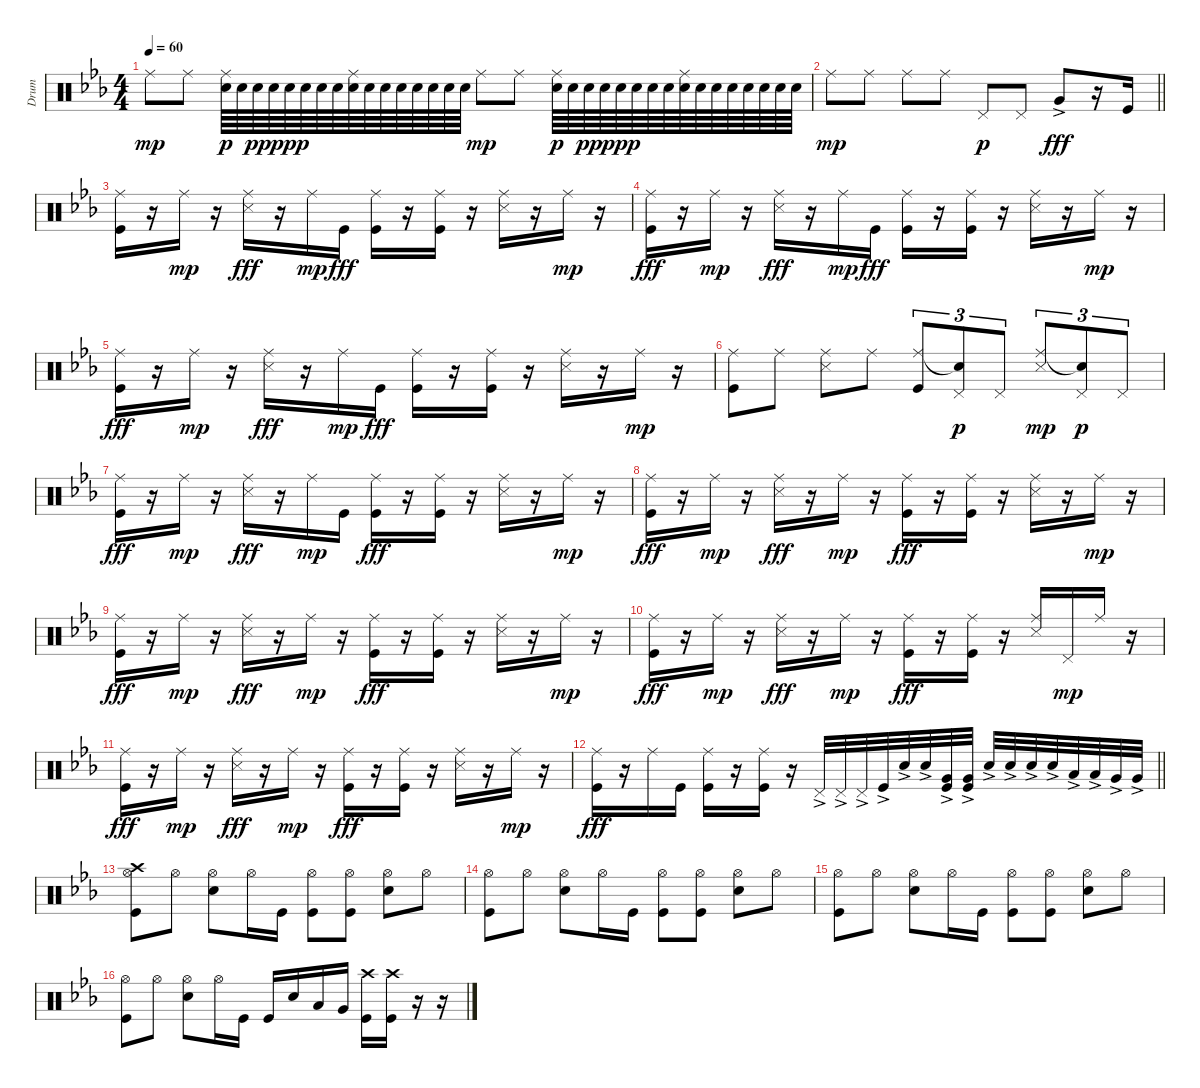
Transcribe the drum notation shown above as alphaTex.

\track ("Drum" "Drum") {instrument percussion}
\staff {score}
\articulation defaults
\ts (4 4)
\tempo 60
\clef neutral
\ks eb "Ride (middle)".8{dy mp} "Ride (middle)".8
("Ride (middle)" "Snare (hit) 2").64{dy p} "Snare (hit) 2".64 "Snare (hit) 2".64{dy pp} "Snare (hit) 2".64 "Snare (hit) 2".64{dy ppp} "Snare (hit) 2".64 "Snare (hit) 2".64 "Snare (hit) 2".64 ("Ride (middle)" "Snare (hit) 2").64 "Snare (hit) 2".64 "Snare (hit) 2".64 "Snare (hit) 2".64 "Snare (hit) 2".64 "Snare (hit) 2".64 "Snare (hit) 2".64 "Snare (hit) 2".64 "Ride (middle)".8{dy mp} "Ride (middle)".8 ("Ride (middle)" "Snare (hit) 2").64{dy p} "Snare (hit) 2".64 "Snare (hit) 2".64{dy pp} "Snare (hit) 2".64 "Snare (hit) 2".64{dy ppp} "Snare (hit) 2".64 "Snare (hit) 2".64 "Snare (hit) 2".64 ("Ride (middle)" "Snare (hit) 2").64 "Snare (hit) 2".64 "Snare (hit) 2".64 "Snare (hit) 2".64 "Snare (hit) 2".64 "Snare (hit) 2".64 "Snare (hit) 2".64 "Snare (hit) 2".64 |
\barLineRight lightlight "Ride (middle)".8{dy mp} "Ride (middle)".8 "Ride (middle)".8 "Ride (middle)".8 "Pedal Hi-Hat (hit)".8{dy p} "Pedal Hi-Hat (hit)".8 "Very Low Tom (hit)"{ac}.8{dy fff}
r.16 "Kick (hit)".16 |
("Ride (middle)" "Kick (hit)").16 r.16 "Ride (middle)".16{dy mp} r.16 ("Ride (middle)" "Snare (side stick) 3").16{dy fff} r.16 "Ride (middle)".16{dy mp} "Kick (hit)".16{dy fff} ("Ride (middle)" "Kick (hit)").16 r.16 ("Ride (middle)" "Kick (hit)").16 r.16 ("Ride (middle)" "Snare (side stick) 3").16 r.16 "Ride (middle)".16{dy mp} r.16 |
("Ride (middle)" "Kick (hit)").16{dy fff} r.16 "Ride (middle)".16{dy mp} r.16 ("Ride (middle)" "Snare (side stick) 3").16{dy fff} r.16 "Ride (middle)".16{dy mp} "Kick (hit)".16{dy fff} ("Ride (middle)" "Kick (hit)").16 r.16 ("Ride (middle)" "Kick (hit)").16 r.16 ("Ride (middle)" "Snare (side stick) 3").16 r.16 "Ride (middle)".16{dy mp} r.16 |
("Ride (middle)" "Kick (hit)").16{dy fff} r.16 "Ride (middle)".16{dy mp} r.16 ("Ride (middle)" "Snare (side stick) 3").16{dy fff} r.16 "Ride (middle)".16{dy mp} "Kick (hit)".16{dy fff} ("Ride (middle)" "Kick (hit)").16 r.16 ("Ride (middle)" "Kick (hit)").16 r.16 ("Ride (middle)" "Snare (side stick) 3").16 r.16 "Ride (middle)".16{dy mp} r.16 |
("Ride (middle)" "Kick (hit)").8 "Ride (middle)".8 ("Ride (middle)" "Snare (side stick) 3").8 "Ride (middle)".8 ("Ride (middle)" "Kick (hit)").8{tu (3 2)} ("Snare (hit)"{t} "Pedal Hi-Hat (hit)").8{tu (3 2) dy p} "Pedal Hi-Hat (hit)".8{tu (3 2)} ("Ride (middle)" "Snare (side stick) 3").8{tu (3 2) dy mp} ("Snare (hit)"{t} "Pedal Hi-Hat (hit)").8{tu (3 2) dy p} "Pedal Hi-Hat (hit)".8{tu (3 2)} |
("Ride (middle)" "Kick (hit)").16{dy fff} r.16 "Ride (middle)".16{dy mp} r.16 ("Ride (middle)" "Snare (side stick) 3").16{dy fff} r.16 "Ride (middle)".16{dy mp} "Kick (hit)".16 ("Ride (middle)" "Kick (hit)").16{dy fff} r.16 ("Ride (middle)" "Kick (hit)").16 r.16 ("Ride (middle)" "Snare (side stick) 3").16 r.16 "Ride (middle)".16{dy mp} r.16 |
("Ride (middle)" "Kick (hit)").16{dy fff} r.16 "Ride (middle)".16{dy mp} r.16 ("Ride (middle)" "Snare (side stick) 3").16{dy fff} r.16 "Ride (middle)".16{dy mp} r.16 ("Ride (middle)" "Kick (hit)").16{dy fff} r.16 ("Ride (middle)" "Kick (hit)").16 r.16 ("Ride (middle)" "Snare (side stick) 3").16 r.16 "Ride (middle)".16{dy mp} r.16 |
("Ride (middle)" "Kick (hit)").16{dy fff} r.16 "Ride (middle)".16{dy mp} r.16 ("Ride (middle)" "Snare (side stick) 3").16{dy fff} r.16 "Ride (middle)".16{dy mp} r.16 ("Ride (middle)" "Kick (hit)").16{dy fff} r.16 ("Ride (middle)" "Kick (hit)").16 r.16 ("Ride (middle)" "Snare (side stick) 3").16 r.16 "Ride (middle)".16{dy mp} r.16 |
("Ride (middle)" "Kick (hit)").16{dy fff} r.16 "Ride (middle)".16{dy mp} r.16 ("Ride (middle)" "Snare (side stick) 3").16{dy fff} r.16 "Ride (middle)".16{dy mp} r.16 ("Ride (middle)" "Kick (hit)").16{dy fff} r.16 ("Ride (middle)" "Kick (hit)").16 r.16 ("Ride (middle)" "Snare (side stick) 3").16 "Pedal Hi-Hat (hit)".16{dy mp} "Ride (middle)".16 r.16 |
("Ride (middle)" "Kick (hit)").16{dy fff} r.16 "Ride (middle)".16{dy mp} r.16 ("Ride (middle)" "Snare (side stick) 3").16{dy fff} r.16 "Ride (middle)".16{dy mp} r.16 ("Ride (middle)" "Kick (hit)").16{dy fff} r.16 ("Ride (middle)" "Kick (hit)").16 r.16 ("Ride (middle)" "Snare (side stick) 3").16 r.16 "Ride (middle)".16{dy mp} r.16 |
\barLineRight lightlight
("Ride (middle)" "Kick (hit)").16{dy fff} r.16 "Ride (middle)".16 "Kick (hit)".16 ("Ride (middle)" "Kick (hit)").16 r.16 ("Ride (middle)" "Kick (hit)").16 r.16 "Pedal Hi-Hat (hit)"{ac}.32 "Pedal Hi-Hat (hit)"{ac}.32 "Pedal Hi-Hat (hit)"{ac}.32 "Kick (hit)"{ac}.32 "Electric Snare (hit)"{ac}.32 "Electric Snare (hit)"{ac}.32 ("Very Low Tom (hit)"{ac} "Kick (hit)"{ac}).32 ("Very Low Tom (hit)"{ac} "Kick (hit)"{ac}).32 "Electric Snare (hit)"{ac}.32 "Electric Snare (hit)"{ac}.32 "Electric Snare (hit)"{ac}.32 "Electric Snare (hit)"{ac}.32 "Low Tom (hit)"{ac}.32 "Low Tom (hit)"{ac}.32 "Very Low Tom (hit)"{ac}.32 "Very Low Tom (hit)"{ac}.32 |
("Crash high (hit)" "Hi-Hat (open)" "Kick (hit)").8 "Hi-Hat (open)".8 ("Hi-Hat (open)" "Electric Snare (hit)").8 "Hi-Hat (open)".16 "Kick (hit)".16 ("Hi-Hat (open)" "Kick (hit)").8 ("Hi-Hat (open)" "Kick (hit)").8 ("Hi-Hat (open)" "Electric Snare (hit)").8 "Hi-Hat (open)".8 |
("Hi-Hat (open)" "Kick (hit)").8 "Hi-Hat (open)".8 ("Hi-Hat (open)" "Electric Snare (hit)").8 "Hi-Hat (open)".16 "Kick (hit)".16 ("Hi-Hat (open)" "Kick (hit)").8 ("Hi-Hat (open)" "Kick (hit)").8 ("Hi-Hat (open)" "Electric Snare (hit)").8 "Hi-Hat (open)".8 |
("Hi-Hat (open)" "Kick (hit)").8 "Hi-Hat (open)".8 ("Hi-Hat (open)" "Electric Snare (hit)").8 "Hi-Hat (open)".16 "Kick (hit)".16 ("Hi-Hat (open)" "Kick (hit)").8 ("Hi-Hat (open)" "Kick (hit)").8 ("Hi-Hat (open)" "Electric Snare (hit)").8 "Hi-Hat (open)".8 |
("Hi-Hat (open)" "Kick (hit)").8 "Hi-Hat (open)".8 ("Hi-Hat (open)" "Electric Snare (hit)").8 "Hi-Hat (open)".16 "Kick (hit)".16 "Kick (hit)".16 "Electric Snare (hit)".16 "Low Tom (hit)".16 "Very Low Tom (hit)".16 ("Crash high (hit)" "Kick (hit)").16 ("Crash high (hit)" "Kick (hit)").16 r.16 r.16
